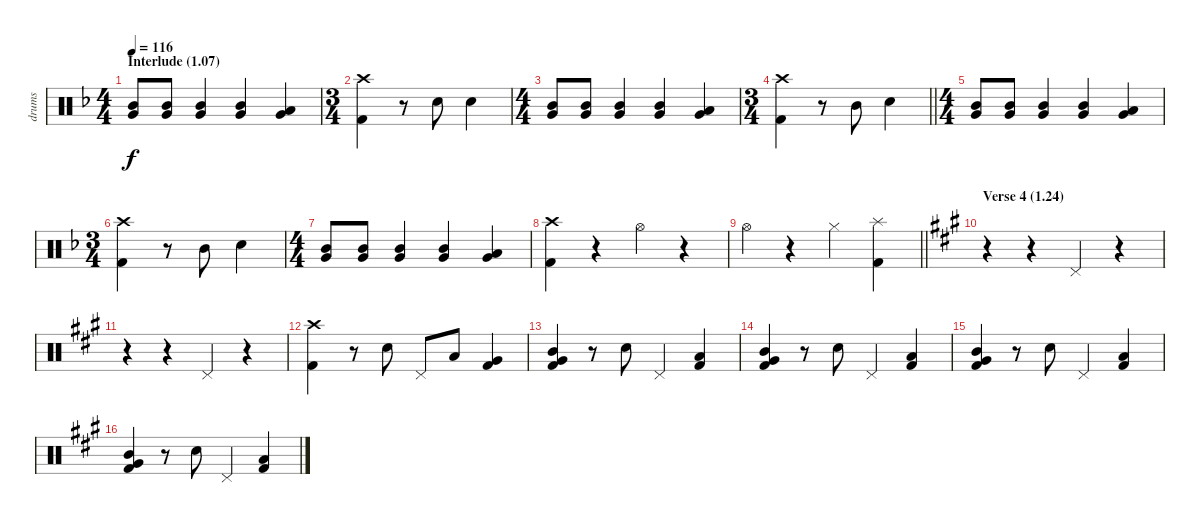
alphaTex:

\track ("drums" "drums") {instrument percussion}
\staff {score}
\articulation defaults
\ts (4 4)
\section ("" "Interlude (1.07)")
\tempo 116
\clef neutral
\ks f
("Mid Tom (hit)" "Very Low Tom (hit)").8{dy f} ("Mid Tom (hit)" "Very Low Tom (hit)").8 ("Mid Tom (hit)" "Very Low Tom (hit)").4 ("Mid Tom (hit)" "Very Low Tom (hit)").4 ("Low Tom (hit)" "Very Low Tom (hit)").4 |
\ts (3 4)
("Crash high (hit)" "Kick (hit) 2").4 r.8 "Electric Snare (hit)".8 "Electric Snare (hit)".4 |
\ts (4 4)
("Mid Tom (hit)" "Very Low Tom (hit)").8 ("Mid Tom (hit)" "Very Low Tom (hit)").8 ("Mid Tom (hit)" "Very Low Tom (hit)").4 ("Mid Tom (hit)" "Very Low Tom (hit)").4 ("Low Tom (hit)" "Very Low Tom (hit)").4 |
\ts (3 4)
\barLineRight lightlight
("Crash high (hit)" "Kick (hit) 2").4 r.8 "Mid Tom (hit)".8 "Electric Snare (hit)".4 |
\ts (4 4)
("Mid Tom (hit)" "Very Low Tom (hit)").8 ("Mid Tom (hit)" "Very Low Tom (hit)").8 ("Mid Tom (hit)" "Very Low Tom (hit)").4 ("Mid Tom (hit)" "Very Low Tom (hit)").4 ("Low Tom (hit)" "Very Low Tom (hit)").4 |
\ts (3 4)
("Crash high (hit)" "Kick (hit) 2").4 r.8 "Mid Tom (hit)".8 "Electric Snare (hit)".4 |
\ts (4 4)
("Mid Tom (hit)" "Very Low Tom (hit)").8 ("Mid Tom (hit)" "Very Low Tom (hit)").8 ("Mid Tom (hit)" "Very Low Tom (hit)").4 ("Mid Tom (hit)" "Very Low Tom (hit)").4 ("Low Tom (hit)" "Very Low Tom (hit)").4 |
("Crash high (hit)" "Kick (hit) 2").4 r.4 "Hi-Hat (open)".4 r.4 |
\barLineRight lightlight "Hi-Hat (open)".4
r.4 "Hi-Hat (closed)".4 ("Splash (hit)" "Kick (hit) 2").4 |
\section ("" "Verse 4 (1.24)")
\ks a
r.4 r.4 "Pedal Hi-Hat (hit)".4 r.4 |
r.4 r.4 "Pedal Hi-Hat (hit)".4 r.4 |
("Crash high (hit)" "Kick (hit) 2").4 r.8 "Electric Snare (hit)".8 "Pedal Hi-Hat (hit)".8 "Low Tom (hit)".8 ("Very Low Tom (hit)" "Kick (hit) 2").4 |
("Mid Tom (hit)" "Very Low Tom (hit)" "Kick (hit) 2").4 r.8 "Electric Snare (hit)".8 "Pedal Hi-Hat (hit)".4 ("Low Tom (hit)" "Kick (hit) 2").4 |
("Mid Tom (hit)" "Very Low Tom (hit)" "Kick (hit) 2").4 r.8 "Electric Snare (hit)".8 "Pedal Hi-Hat (hit)".4 ("Low Tom (hit)" "Kick (hit) 2").4 |
("Mid Tom (hit)" "Very Low Tom (hit)" "Kick (hit) 2").4 r.8 "Electric Snare (hit)".8 "Pedal Hi-Hat (hit)".4 ("Low Tom (hit)" "Kick (hit) 2").4 |
("Mid Tom (hit)" "Very Low Tom (hit)" "Kick (hit) 2").4 r.8 "Electric Snare (hit)".8 "Pedal Hi-Hat (hit)".4 ("Low Tom (hit)" "Kick (hit) 2").4
